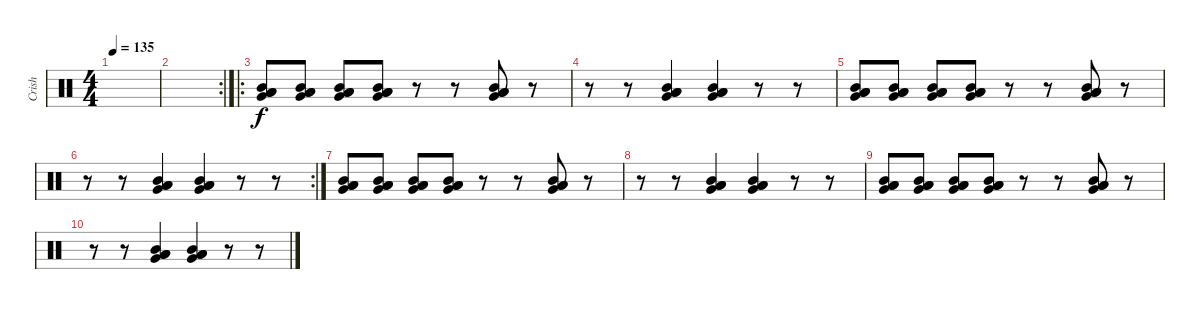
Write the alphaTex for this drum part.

\track ("Crish" "Crish") {instrument percussion}
\staff {score}
\articulation defaults
\ts (4 4)
\tempo 135
\clef neutral
\ks c
|
\rc 2
|
\ro
("Low Floor Tom (hit)" "Very Low Tom (hit)" "Low Tom (hit)" "Mid Tom (hit)").8{volume 16} ("Low Floor Tom (hit)" "Very Low Tom (hit)" "Low Tom (hit)" "Mid Tom (hit)").8 ("Low Floor Tom (hit)" "Very Low Tom (hit)" "Low Tom (hit)" "Mid Tom (hit)").8 ("Low Floor Tom (hit)" "Very Low Tom (hit)" "Low Tom (hit)" "Mid Tom (hit)").8 r.8 r.8 ("Low Floor Tom (hit)" "Very Low Tom (hit)" "Low Tom (hit)" "Mid Tom (hit)").8 r.8 |
r.8 r.8 ("Low Floor Tom (hit)" "Very Low Tom (hit)" "Low Tom (hit)" "Mid Tom (hit)").4 ("Low Floor Tom (hit)" "Very Low Tom (hit)" "Low Tom (hit)" "Mid Tom (hit)").4 r.8 r.8 |
("Low Floor Tom (hit)" "Very Low Tom (hit)" "Low Tom (hit)" "Mid Tom (hit)").8 ("Low Floor Tom (hit)" "Very Low Tom (hit)" "Low Tom (hit)" "Mid Tom (hit)").8 ("Low Floor Tom (hit)" "Very Low Tom (hit)" "Low Tom (hit)" "Mid Tom (hit)").8 ("Low Floor Tom (hit)" "Very Low Tom (hit)" "Low Tom (hit)" "Mid Tom (hit)").8 r.8 r.8 ("Low Floor Tom (hit)" "Very Low Tom (hit)" "Low Tom (hit)" "Mid Tom (hit)").8 r.8 |
\rc 2
r.8 r.8 ("Low Floor Tom (hit)" "Very Low Tom (hit)" "Low Tom (hit)" "Mid Tom (hit)").4 ("Low Floor Tom (hit)" "Very Low Tom (hit)" "Low Tom (hit)" "Mid Tom (hit)").4 r.8 r.8 |
("Low Floor Tom (hit)" "Very Low Tom (hit)" "Low Tom (hit)" "Mid Tom (hit)").8 ("Low Floor Tom (hit)" "Very Low Tom (hit)" "Low Tom (hit)" "Mid Tom (hit)").8 ("Low Floor Tom (hit)" "Very Low Tom (hit)" "Low Tom (hit)" "Mid Tom (hit)").8 ("Low Floor Tom (hit)" "Very Low Tom (hit)" "Low Tom (hit)" "Mid Tom (hit)").8 r.8 r.8 ("Low Floor Tom (hit)" "Very Low Tom (hit)" "Low Tom (hit)" "Mid Tom (hit)").8 r.8 |
r.8 r.8 ("Low Floor Tom (hit)" "Very Low Tom (hit)" "Low Tom (hit)" "Mid Tom (hit)").4 ("Low Floor Tom (hit)" "Very Low Tom (hit)" "Low Tom (hit)" "Mid Tom (hit)").4 r.8 r.8 |
("Low Floor Tom (hit)" "Very Low Tom (hit)" "Low Tom (hit)" "Mid Tom (hit)").8 ("Low Floor Tom (hit)" "Very Low Tom (hit)" "Low Tom (hit)" "Mid Tom (hit)").8 ("Low Floor Tom (hit)" "Very Low Tom (hit)" "Low Tom (hit)" "Mid Tom (hit)").8 ("Low Floor Tom (hit)" "Very Low Tom (hit)" "Low Tom (hit)" "Mid Tom (hit)").8 r.8 r.8 ("Low Floor Tom (hit)" "Very Low Tom (hit)" "Low Tom (hit)" "Mid Tom (hit)").8 r.8 |
r.8 r.8 ("Low Floor Tom (hit)" "Very Low Tom (hit)" "Low Tom (hit)" "Mid Tom (hit)").4 ("Low Floor Tom (hit)" "Very Low Tom (hit)" "Low Tom (hit)" "Mid Tom (hit)").4 r.8 r.8
